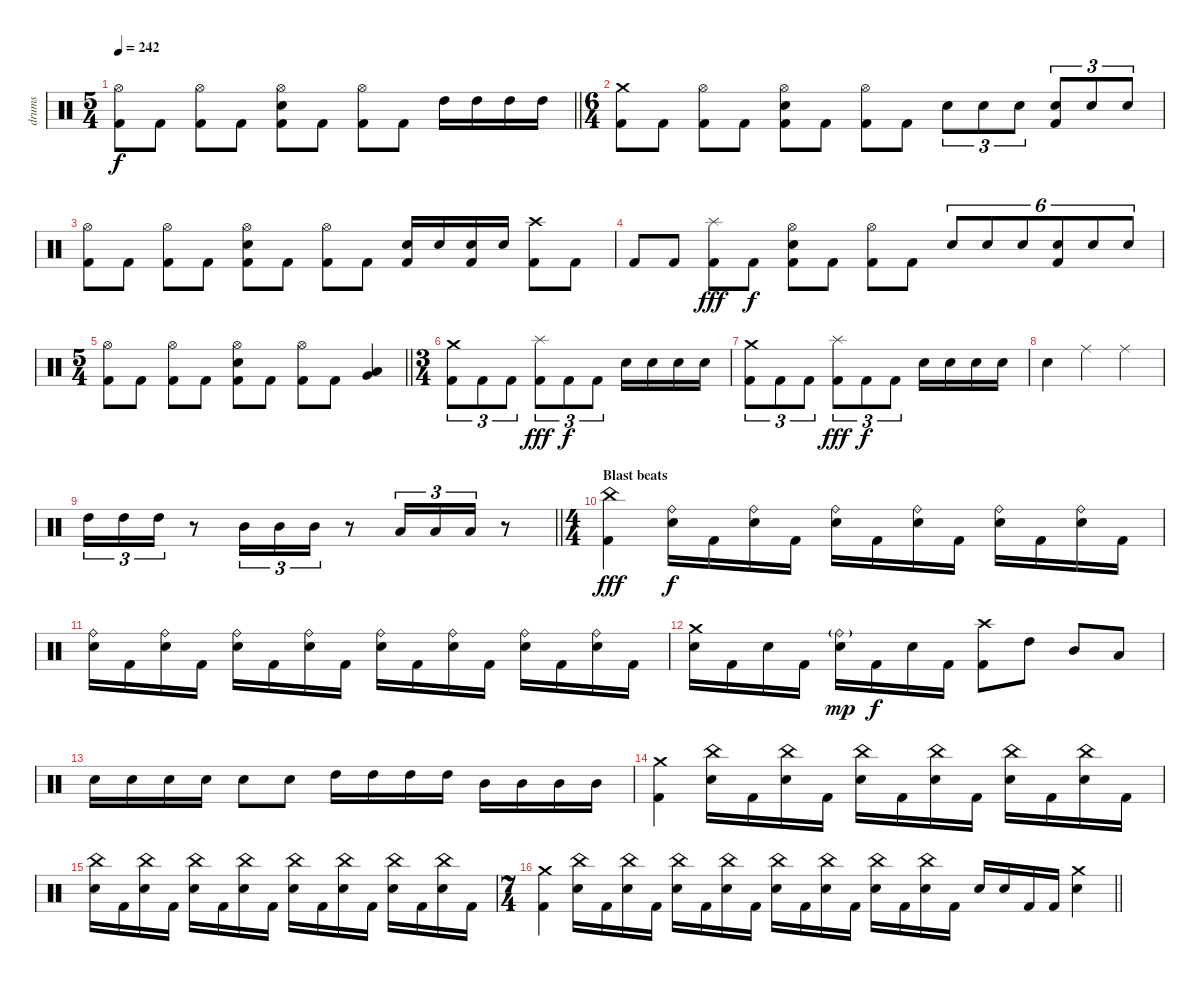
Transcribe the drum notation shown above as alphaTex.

\track ("drums" "drums") {instrument percussion}
\staff {score}
\articulation defaults
\ts (5 4)
\tempo 242
\clef neutral
\barLineRight lightlight
\ks c
("Hi-Hat (open)" "Kick (hit) 2").8{dy f} "Kick (hit) 2".8 ("Hi-Hat (open)" "Kick (hit) 2").8 "Kick (hit) 2".8 ("Hi-Hat (open)" "Electric Snare (hit)" "Kick (hit) 2").8 "Kick (hit) 2".8 ("Hi-Hat (open)" "Kick (hit) 2").8 "Kick (hit) 2".8 "High Tom (hit)".16 "High Tom (hit)".16 "High Tom (hit)".16 "High Tom (hit)".16 |
\ts (6 4)
("Crash medium (hit)" "Kick (hit) 2").8 "Kick (hit) 2".8 ("Hi-Hat (open)" "Kick (hit) 2").8 "Kick (hit) 2".8 ("Hi-Hat (open)" "Electric Snare (hit)" "Kick (hit) 2").8 "Kick (hit) 2".8 ("Hi-Hat (open)" "Kick (hit) 2").8 "Kick (hit) 2".8 "Electric Snare (hit)".8{tu (3 2)} "Electric Snare (hit)".8{tu (3 2)} "Electric Snare (hit)".8{tu (3 2)} ("Electric Snare (hit)" "Kick (hit) 2").8{tu (3 2)} "Electric Snare (hit)".8{tu (3 2)} "Electric Snare (hit)".8{tu (3 2)} |
("Hi-Hat (open)" "Kick (hit) 2").8 "Kick (hit) 2".8 ("Hi-Hat (open)" "Kick (hit) 2").8 "Kick (hit) 2".8 ("Hi-Hat (open)" "Electric Snare (hit)" "Kick (hit) 2").8 "Kick (hit) 2".8 ("Hi-Hat (open)" "Kick (hit) 2").8 "Kick (hit) 2".8 ("Electric Snare (hit)" "Kick (hit) 2").16 "Electric Snare (hit)".16 ("Electric Snare (hit)" "Kick (hit) 2").16 "Electric Snare (hit)".16 ("Crash high (hit)" "Kick (hit) 2").8 "Kick (hit) 2".8 |
"Kick (hit) 2".8 "Kick (hit) 2".8 ("Splash (hit)" "Kick (hit) 2").8{dy fff} "Kick (hit) 2".8{dy f} ("Hi-Hat (open)" "Electric Snare (hit)" "Kick (hit) 2").8 "Kick (hit) 2".8 ("Hi-Hat (open)" "Kick (hit) 2").8 "Kick (hit) 2".8 "Electric Snare (hit)".8{tu (6 4)} "Electric Snare (hit)".8{tu (6 4)} "Electric Snare (hit)".8{tu (6 4)} ("Electric Snare (hit)" "Kick (hit) 2").8{tu (6 4)} "Electric Snare (hit)".8{tu (6 4)} "Electric Snare (hit)".8{tu (6 4)} |
\ts (5 4)
\barLineRight lightlight
("Hi-Hat (open)" "Kick (hit) 2").8 "Kick (hit) 2".8 ("Hi-Hat (open)" "Kick (hit) 2").8 "Kick (hit) 2".8 ("Hi-Hat (open)" "Electric Snare (hit)" "Kick (hit) 2").8 "Kick (hit) 2".8 ("Hi-Hat (open)" "Kick (hit) 2").8 "Kick (hit) 2".8 ("Low Tom (hit)" "Very Low Tom (hit)").4 |
\ts (3 4)
("Crash medium (hit)" "Kick (hit) 2").8{tu (3 2)} "Kick (hit) 2".8{tu (3 2)} "Kick (hit) 2".8{tu (3 2)} ("Splash (hit)" "Kick (hit) 2").8{tu (3 2) dy fff} "Kick (hit) 2".8{tu (3 2) dy f} "Kick (hit) 2".8{tu (3 2)} "Electric Snare (hit)".16 "Electric Snare (hit)".16 "Electric Snare (hit)".16 "Electric Snare (hit)".16 |
("Crash medium (hit)" "Kick (hit) 2").8{tu (3 2)} "Kick (hit) 2".8{tu (3 2)} "Kick (hit) 2".8{tu (3 2)} ("Splash (hit)" "Kick (hit) 2").8{tu (3 2) dy fff} "Kick (hit) 2".8{tu (3 2) dy f} "Kick (hit) 2".8{tu (3 2)} "Electric Snare (hit)".16 "Electric Snare (hit)".16 "Electric Snare (hit)".16 "Electric Snare (hit)".16 |
"Electric Snare (hit)".4 "Ride (middle)".4 "Ride (middle)".4 |
\barLineRight lightlight "High Tom (hit)".16{tu (3 2)} "High Tom (hit)".16{tu (3 2)} "High Tom (hit)".16{tu (3 2)}
r.8 "Mid Tom (hit)".16{tu (3 2)} "Mid Tom (hit)".16{tu (3 2)} "Mid Tom (hit)".16{tu (3 2)} r.8 "Low Tom (hit)".16{tu (3 2)} "Low Tom (hit)".16{tu (3 2)} "Low Tom (hit)".16{tu (3 2)} r.8 |
\ts (4 4)
\section ("" "Blast beats")
("China (hit)" "Kick (hit) 2").4{dy fff} ("Ride (bell)" "Electric Snare (hit)").16{dy f} "Kick (hit) 2".16 ("Ride (bell)" "Electric Snare (hit)").16 "Kick (hit) 2".16 ("Ride (bell)" "Electric Snare (hit)").16 "Kick (hit) 2".16 ("Ride (bell)" "Electric Snare (hit)").16 "Kick (hit) 2".16 ("Ride (bell)" "Electric Snare (hit)").16 "Kick (hit) 2".16 ("Ride (bell)" "Electric Snare (hit)").16 "Kick (hit) 2".16 |
("Ride (bell)" "Electric Snare (hit)").16 "Kick (hit) 2".16 ("Ride (bell)" "Electric Snare (hit)").16 "Kick (hit) 2".16 ("Ride (bell)" "Electric Snare (hit)").16 "Kick (hit) 2".16 ("Ride (bell)" "Electric Snare (hit)").16 "Kick (hit) 2".16 ("Ride (bell)" "Electric Snare (hit)").16 "Kick (hit) 2".16 ("Ride (bell)" "Electric Snare (hit)").16 "Kick (hit) 2".16 ("Ride (bell)" "Electric Snare (hit)").16 "Kick (hit) 2".16 ("Ride (bell)" "Electric Snare (hit)").16 "Kick (hit) 2".16 |
("Crash medium (hit)" "Electric Snare (hit)").16 "Kick (hit) 2".16 "Electric Snare (hit)".16 "Kick (hit) 2".16 ("Ride (bell)"{g} "Electric Snare (hit)").16{dy mp} "Kick (hit) 2".16{dy f} "Electric Snare (hit)".16 "Kick (hit) 2".16 ("Crash high (hit)" "Kick (hit) 2").8 "High Tom (hit)".8 "Mid Tom (hit)".8 "Low Tom (hit)".8 |
"Electric Snare (hit)".16 "Electric Snare (hit)".16 "Electric Snare (hit)".16 "Electric Snare (hit)".16 "Electric Snare (hit)".8 "Electric Snare (hit)".8 "High Tom (hit)".16 "High Tom (hit)".16 "High Tom (hit)".16 "High Tom (hit)".16 "Mid Tom (hit)".16 "Mid Tom (hit)".16 "Mid Tom (hit)".16 "Mid Tom (hit)".16 |
("Crash medium (hit)" "Kick (hit) 2").4 ("China (hit)" "Electric Snare (hit)").16 "Kick (hit) 2".16 ("China (hit)" "Electric Snare (hit)").16 "Kick (hit) 2".16 ("China (hit)" "Electric Snare (hit)").16 "Kick (hit) 2".16 ("China (hit)" "Electric Snare (hit)").16 "Kick (hit) 2".16 ("China (hit)" "Electric Snare (hit)").16 "Kick (hit) 2".16 ("China (hit)" "Electric Snare (hit)").16 "Kick (hit) 2".16 |
("China (hit)" "Electric Snare (hit)").16 "Kick (hit) 2".16 ("China (hit)" "Electric Snare (hit)").16 "Kick (hit) 2".16 ("China (hit)" "Electric Snare (hit)").16 "Kick (hit) 2".16 ("China (hit)" "Electric Snare (hit)").16 "Kick (hit) 2".16 ("China (hit)" "Electric Snare (hit)").16 "Kick (hit) 2".16 ("China (hit)" "Electric Snare (hit)").16 "Kick (hit) 2".16 ("China (hit)" "Electric Snare (hit)").16 "Kick (hit) 2".16 ("China (hit)" "Electric Snare (hit)").16 "Kick (hit) 2".16 |
\ts (7 4)
\barLineRight lightlight
("Crash medium (hit)" "Kick (hit) 2").4 ("China (hit)" "Electric Snare (hit)").16 "Kick (hit) 2".16 ("China (hit)" "Electric Snare (hit)").16 "Kick (hit) 2".16 ("China (hit)" "Electric Snare (hit)").16 "Kick (hit) 2".16 ("China (hit)" "Electric Snare (hit)").16 "Kick (hit) 2".16 ("China (hit)" "Electric Snare (hit)").16 "Kick (hit) 2".16 ("China (hit)" "Electric Snare (hit)").16 "Kick (hit) 2".16 ("China (hit)" "Electric Snare (hit)").16 "Kick (hit) 2".16 ("China (hit)" "Electric Snare (hit)").16 "Kick (hit) 2".16 "Electric Snare (hit)".16 "Electric Snare (hit)".16 "Kick (hit) 2".16 "Kick (hit) 2".16 ("Crash medium (hit)" "Electric Snare (hit)").4
